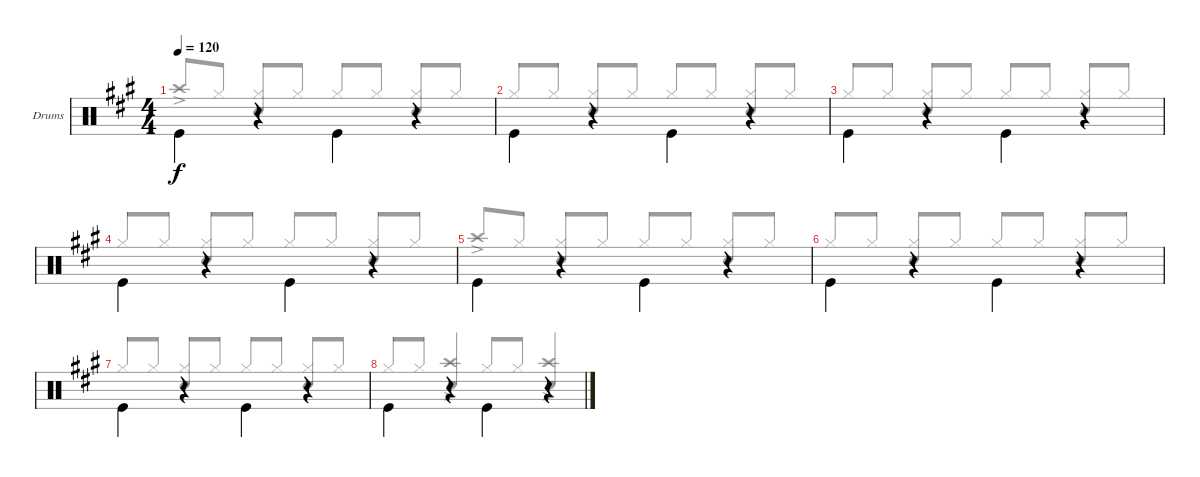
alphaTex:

\bracketExtendMode groupsimilarinstruments
\firstSystemTrackNameOrientation horizontal
\otherSystemsTrackNameOrientation horizontal
\track ("Drum" "Drums") {instrument percussion}
\staff {score}
\articulation defaults
\voice
\ts (4 4)
\tempo 120
\clef neutral
\scale
1.05801
\ks a "Kick (hit)".4{dy f beam invert}
r.4 "Kick (hit)".4{beam invert} r.4 |
\scale
0.941992 "Kick (hit)".4{beam invert} r.4 "Kick (hit)".4{beam invert} r.4 |
\scale
1.05801 "Kick (hit)".4{beam invert} r.4 "Kick (hit)".4{beam invert} r.4 |
\scale
0.941992 "Kick (hit)".4{beam invert} r.4 "Kick (hit)".4{beam invert} r.4 |
\scale
1.05801 "Kick (hit)".4{beam invert} r.4 "Kick (hit)".4{beam invert} r.4 |
\scale
0.941992 "Kick (hit)".4{beam invert} r.4 "Kick (hit)".4{beam invert} r.4 |
\scale
1.05801 "Kick (hit)".4{beam invert} r.4 "Kick (hit)".4{beam invert} r.4 |
\scale
0.941992 "Kick (hit)".4{beam invert} r.4 "Kick (hit)".4{beam invert} r.4
\voice
\clef neutral
\ottava regular
\simile none
\scale
1.05801
\ks a "Crash high (hit)"{ac}.8{dy f beam invert} "Hi-Hat (closed)".8
("Hi-Hat (closed)" "Snare (hit) 2").8{beam invert} "Hi-Hat (closed)".8 "Hi-Hat (closed)".8{beam invert} "Hi-Hat (closed)".8 ("Hi-Hat (closed)" "Snare (hit) 2").8{beam invert} "Hi-Hat (closed)".8 |
\scale
0.941992 "Hi-Hat (closed)".8{beam invert} "Hi-Hat (closed)".8 ("Hi-Hat (closed)" "Snare (hit) 2").8{beam invert} "Hi-Hat (closed)".8 "Hi-Hat (closed)".8{beam invert} "Hi-Hat (closed)".8 ("Hi-Hat (closed)" "Snare (hit) 2").8{beam invert} "Hi-Hat (closed)".8 |
\scale
1.05801 "Hi-Hat (closed)".8{beam invert} "Hi-Hat (closed)".8 ("Hi-Hat (closed)" "Snare (hit) 2").8{beam invert} "Hi-Hat (closed)".8 "Hi-Hat (closed)".8{beam invert} "Hi-Hat (closed)".8 ("Hi-Hat (closed)" "Snare (hit) 2").8{beam invert} "Hi-Hat (closed)".8 |
\scale
0.941992 "Hi-Hat (closed)".8{beam invert} "Hi-Hat (closed)".8 ("Hi-Hat (closed)" "Snare (hit) 2").8{beam invert} "Hi-Hat (closed)".8 "Hi-Hat (closed)".8{beam invert} "Hi-Hat (closed)".8 ("Hi-Hat (closed)" "Snare (hit) 2").8{beam invert} "Hi-Hat (closed)".8 |
\scale
1.05801 "Crash high (hit)"{ac}.8{beam invert} "Hi-Hat (closed)".8 ("Hi-Hat (closed)" "Snare (hit) 2").8{beam invert} "Hi-Hat (closed)".8 "Hi-Hat (closed)".8{beam invert} "Hi-Hat (closed)".8 ("Hi-Hat (closed)" "Snare (hit) 2").8{beam invert} "Hi-Hat (closed)".8 |
\scale
0.941992 "Hi-Hat (closed)".8{beam invert} "Hi-Hat (closed)".8 ("Hi-Hat (closed)" "Snare (hit) 2").8{beam invert} "Hi-Hat (closed)".8 "Hi-Hat (closed)".8{beam invert} "Hi-Hat (closed)".8 ("Hi-Hat (closed)" "Snare (hit) 2").8{beam invert} "Hi-Hat (closed)".8 |
\scale
1.05801 "Hi-Hat (closed)".8{beam invert} "Hi-Hat (closed)".8 ("Hi-Hat (closed)" "Snare (hit) 2").8{beam invert} "Hi-Hat (closed)".8 "Hi-Hat (closed)".8{beam invert} "Hi-Hat (closed)".8 ("Hi-Hat (closed)" "Snare (hit) 2").8{beam invert} "Hi-Hat (closed)".8 |
\scale
0.941992 "Hi-Hat (closed)".8{beam invert} "Hi-Hat (closed)".8 ("Snare (hit) 2" "Crash high (hit)"{ac}).4{beam invert} "Hi-Hat (closed)".8{beam invert} "Hi-Hat (closed)".8 ("Snare (hit) 2" "Crash high (hit)"{ac}).4{beam invert}
